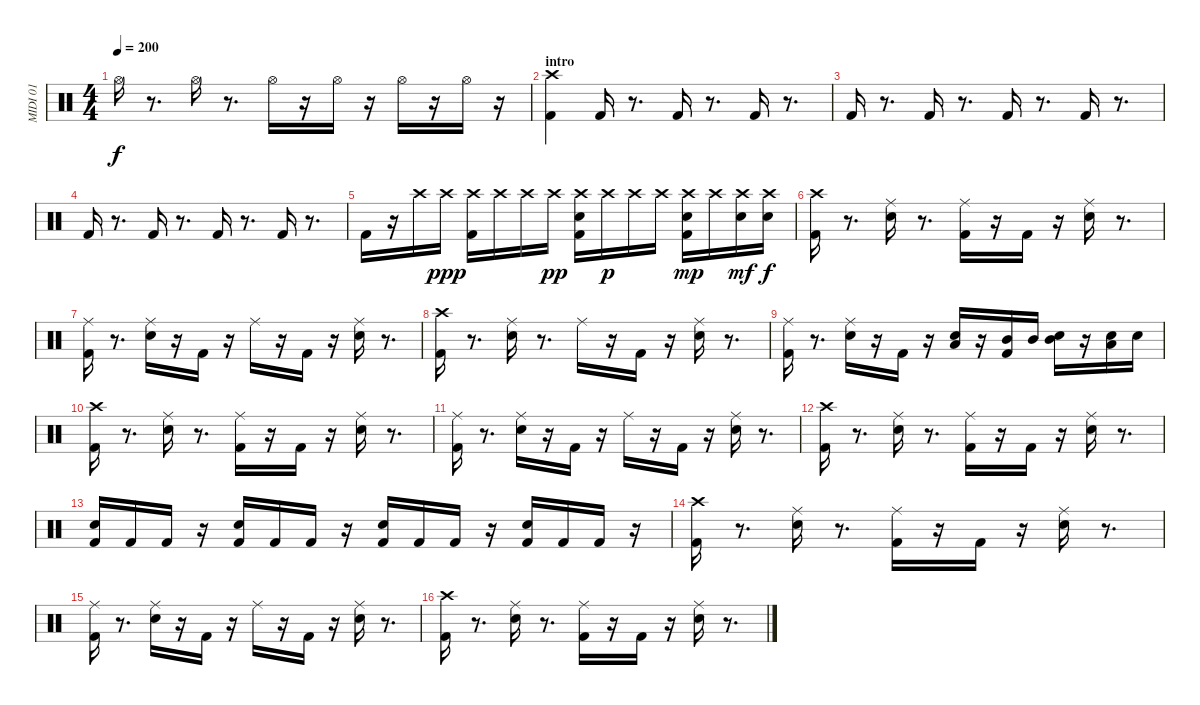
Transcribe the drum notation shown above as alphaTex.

\track ("MIDI 01" "MIDI 01") {instrument percussion}
\staff {score}
\articulation defaults
\ts (4 4)
\tempo 200
\clef neutral
\ks c "Hi-Hat (open)".16{dy f}
r.8{d} "Hi-Hat (open)".16 r.8{d} "Hi-Hat (open)".16 r.16 "Hi-Hat (open)".16 r.16 "Hi-Hat (open)".16 r.16 "Hi-Hat (open)".16 r.16 |
\section ("" "intro")
("Kick (hit) 2" "Crash high (hit)").4 "Kick (hit) 2".16 r.8{d} "Kick (hit) 2".16 r.8{d} "Kick (hit) 2".16 r.8{d} |
"Kick (hit) 2".16 r.8{d} "Kick (hit) 2".16 r.8{d} "Kick (hit) 2".16 r.8{d} "Kick (hit) 2".16 r.8{d} |
"Kick (hit) 2".16 r.8{d} "Kick (hit) 2".16 r.8{d} "Kick (hit) 2".16 r.8{d} "Kick (hit) 2".16 r.8{d} |
"Kick (hit) 2".16 r.16 "Crash high (hit)".16 "Crash high (hit)".16{dy ppp} ("Kick (hit) 2" "Crash high (hit)").16 "Crash high (hit)".16 "Crash high (hit)".16 "Crash high (hit)".16{dy pp} ("Kick (hit) 2" "Crash high (hit)" "Snare (hit) 2").16 "Crash high (hit)".16{dy p} "Crash high (hit)".16 "Crash high (hit)".16 ("Kick (hit) 2" "Crash high (hit)" "Snare (hit) 2").16{dy mp} "Crash high (hit)".16 ("Crash high (hit)" "Snare (hit) 2").16{dy mf} ("Crash high (hit)" "Snare (hit) 2").16{dy f} |
("Kick (hit) 2" "Crash high (hit)").16 r.8{d} ("Snare (hit) 2" "Ride (middle)").16 r.8{d} ("Kick (hit) 2" "Ride (middle)").16 r.16 "Kick (hit) 2".16 r.16 ("Snare (hit) 2" "Ride (middle)").16 r.8{d} |
("Kick (hit) 2" "Ride (middle)").16 r.8{d} ("Snare (hit) 2" "Ride (middle)").16 r.16 "Kick (hit) 2".16 r.16 "Ride (middle)".16 r.16 "Kick (hit) 2".16 r.16 ("Snare (hit) 2" "Ride (middle)").16 r.8{d} |
("Kick (hit) 2" "Crash high (hit)").16 r.8{d} ("Snare (hit) 2" "Ride (middle)").16 r.8{d} "Ride (middle)".16 r.16 "Kick (hit) 2".16 r.16 ("Snare (hit) 2" "Ride (middle)").16 r.8{d} |
("Kick (hit) 2" "Ride (middle)").16 r.8{d} ("Snare (hit) 2" "Ride (middle)").16 r.16 "Kick (hit) 2".16 r.16 ("Snare (hit) 2" "Low Tom (hit)").16 r.16 ("Kick (hit) 2" "Mid Tom (hit)").16 "Mid Tom (hit)".16 ("Snare (hit) 2" "Mid Tom (hit)").16 r.16 ("Snare (hit) 2" "Low Tom (hit)").16 "Snare (hit) 2".16 |
("Kick (hit) 2" "Crash high (hit)").16 r.8{d} ("Snare (hit) 2" "Ride (middle)").16 r.8{d} ("Kick (hit) 2" "Ride (middle)").16 r.16 "Kick (hit) 2".16 r.16 ("Snare (hit) 2" "Ride (middle)").16 r.8{d} |
("Kick (hit) 2" "Ride (middle)").16 r.8{d} ("Snare (hit) 2" "Ride (middle)").16 r.16 "Kick (hit) 2".16 r.16 "Ride (middle)".16 r.16 "Kick (hit) 2".16 r.16 ("Snare (hit) 2" "Ride (middle)").16 r.8{d} |
("Kick (hit) 2" "Crash high (hit)").16 r.8{d} ("Snare (hit) 2" "Ride (middle)").16 r.8{d} ("Kick (hit) 2" "Ride (middle)").16 r.16 "Kick (hit) 2".16 r.16 ("Snare (hit) 2" "Ride (middle)").16 r.8{d} |
("Kick (hit) 2" "Snare (hit) 2").16 "Kick (hit) 2".16 "Kick (hit) 2".16 r.16 ("Kick (hit) 2" "Snare (hit) 2").16 "Kick (hit) 2".16 "Kick (hit) 2".16 r.16 ("Kick (hit) 2" "Snare (hit) 2").16 "Kick (hit) 2".16 "Kick (hit) 2".16 r.16 ("Snare (hit) 2" "Kick (hit) 2").16 "Kick (hit) 2".16 "Kick (hit) 2".16 r.16 |
("Kick (hit) 2" "Crash high (hit)").16 r.8{d} ("Snare (hit) 2" "Ride (middle)").16 r.8{d} ("Kick (hit) 2" "Ride (middle)").16 r.16 "Kick (hit) 2".16 r.16 ("Snare (hit) 2" "Ride (middle)").16 r.8{d} |
("Kick (hit) 2" "Ride (middle)").16 r.8{d} ("Snare (hit) 2" "Ride (middle)").16 r.16 "Kick (hit) 2".16 r.16 "Ride (middle)".16 r.16 "Kick (hit) 2".16 r.16 ("Snare (hit) 2" "Ride (middle)").16 r.8{d} |
("Kick (hit) 2" "Crash high (hit)").16 r.8{d} ("Snare (hit) 2" "Ride (middle)").16 r.8{d} ("Kick (hit) 2" "Ride (middle)").16 r.16 "Kick (hit) 2".16 r.16 ("Snare (hit) 2" "Ride (middle)").16 r.8{d}
